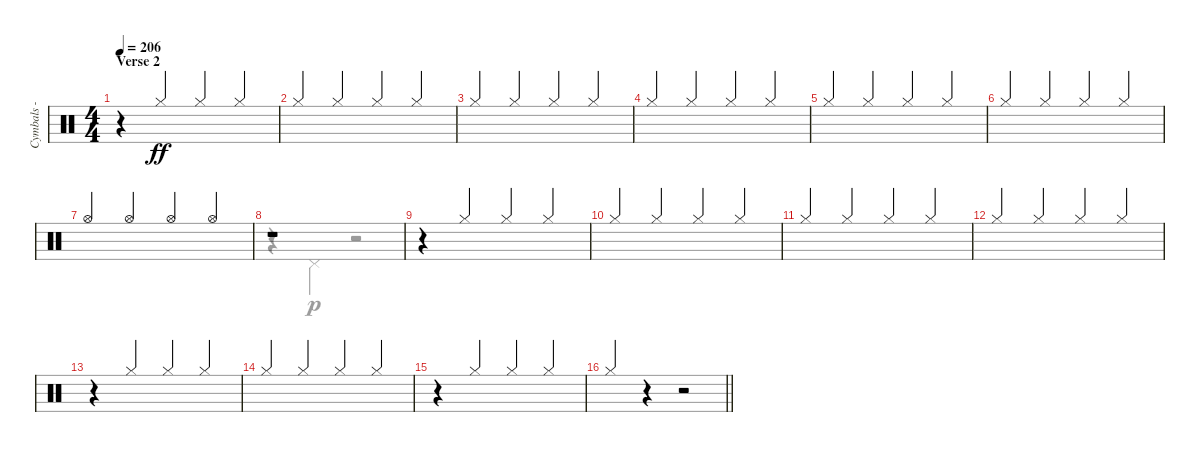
\track ("Cymbals - hi-hat" "Cymbals - ") {instrument percussion}
\staff {score}
\articulation defaults
\voice
\ts (4 4)
\section ("" "Verse 2")
\tempo 206
\clef neutral
\ks c
r.4{dy ff} "Hi-Hat (closed)".4{beam Up} "Hi-Hat (closed)".4{beam Up} "Hi-Hat (closed)".4{beam Up} |
"Hi-Hat (closed)".4{beam Up} "Hi-Hat (closed)".4{beam Up} "Hi-Hat (closed)".4{beam Up} "Hi-Hat (closed)".4{beam Up} |
"Hi-Hat (closed)".4{beam Up} "Hi-Hat (closed)".4{beam Up} "Hi-Hat (closed)".4{beam Up} "Hi-Hat (closed)".4{beam Up} |
"Hi-Hat (closed)".4{beam Up} "Hi-Hat (closed)".4{beam Up} "Hi-Hat (closed)".4{beam Up} "Hi-Hat (closed)".4{beam Up} |
"Hi-Hat (closed)".4{beam Up} "Hi-Hat (closed)".4{beam Up} "Hi-Hat (closed)".4{beam Up} "Hi-Hat (closed)".4{beam Up} |
"Hi-Hat (closed)".4{beam Up} "Hi-Hat (closed)".4{beam Up} "Hi-Hat (closed)".4{beam Up} "Hi-Hat (closed)".4{beam Up} |
"Hi-Hat (open)".4{beam Up} "Hi-Hat (open)".4{beam Up} "Hi-Hat (open)".4{beam Up} "Hi-Hat (open)".4{beam Up} |
r.1 |
r.4 "Hi-Hat (closed)".4{beam Up} "Hi-Hat (closed)".4{beam Up} "Hi-Hat (closed)".4{beam Up} |
"Hi-Hat (closed)".4{beam Up} "Hi-Hat (closed)".4{beam Up} "Hi-Hat (closed)".4{beam Up} "Hi-Hat (closed)".4{beam Up} |
"Hi-Hat (closed)".4{beam Up} "Hi-Hat (closed)".4{beam Up} "Hi-Hat (closed)".4{beam Up} "Hi-Hat (closed)".4{beam Up} |
"Hi-Hat (closed)".4{beam Up} "Hi-Hat (closed)".4{beam Up} "Hi-Hat (closed)".4{beam Up} "Hi-Hat (closed)".4{beam Up} |
r.4 "Hi-Hat (closed)".4{beam Up} "Hi-Hat (closed)".4{beam Up} "Hi-Hat (closed)".4{beam Up} |
"Hi-Hat (closed)".4{beam Up} "Hi-Hat (closed)".4{beam Up} "Hi-Hat (closed)".4{beam Up} "Hi-Hat (closed)".4{beam Up} |
r.4 "Hi-Hat (closed)".4{beam Up} "Hi-Hat (closed)".4{beam Up} "Hi-Hat (closed)".4{beam Up} |
\barLineRight lightlight "Hi-Hat (closed)".4{beam Up}
r.4 r.2
\voice
\clef neutral
\ottava regular
\simile none
\ks c
|
|
|
|
|
|
|
r.4 "Pedal Hi-Hat (hit)".4{dy p} r.2 |
|
|
|
|
|
|
|
\barLineRight lightlight
